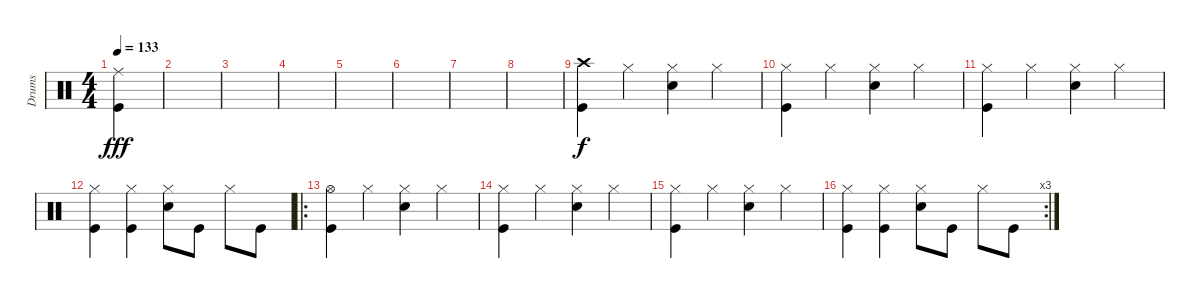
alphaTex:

\track ("Drums" "Drums") {instrument percussion}
\staff {score}
\articulation defaults
\ts (4 4)
\tempo 133
\clef neutral
\ks c
("Ride (middle)" "Kick (hit)").4{dy fff} |
|
|
|
|
|
|
|
("Crash high (hit)" "Kick (hit)").4{dy f} "Hi-Hat (closed)".4 ("Hi-Hat (closed)" "Snare (hit) 2").4 "Hi-Hat (closed)".4 |
("Hi-Hat (closed)" "Kick (hit)").4 "Hi-Hat (closed)".4 ("Hi-Hat (closed)" "Snare (hit) 2").4 "Hi-Hat (closed)".4 |
("Hi-Hat (closed)" "Kick (hit)").4 "Hi-Hat (closed)".4 ("Hi-Hat (closed)" "Snare (hit) 2").4 "Hi-Hat (closed)".4 |
("Hi-Hat (closed)" "Kick (hit)").4 ("Hi-Hat (closed)" "Kick (hit)").4 ("Hi-Hat (closed)" "Snare (hit) 2").8 "Kick (hit)".8 "Hi-Hat (closed)".8 "Kick (hit)".8 |
\ro
("Hi-Hat (open)" "Kick (hit)").4 "Hi-Hat (closed)".4 ("Hi-Hat (closed)" "Snare (hit) 2").4 "Hi-Hat (closed)".4 |
("Hi-Hat (closed)" "Kick (hit)").4 "Hi-Hat (closed)".4 ("Hi-Hat (closed)" "Snare (hit) 2").4 "Hi-Hat (closed)".4 |
("Hi-Hat (closed)" "Kick (hit)").4 "Hi-Hat (closed)".4 ("Hi-Hat (closed)" "Snare (hit) 2").4 "Hi-Hat (closed)".4 |
\rc 3
("Hi-Hat (closed)" "Kick (hit)").4 ("Hi-Hat (closed)" "Kick (hit)").4 ("Hi-Hat (closed)" "Snare (hit) 2").8 "Kick (hit)".8 "Hi-Hat (closed)".8 "Kick (hit)".8
